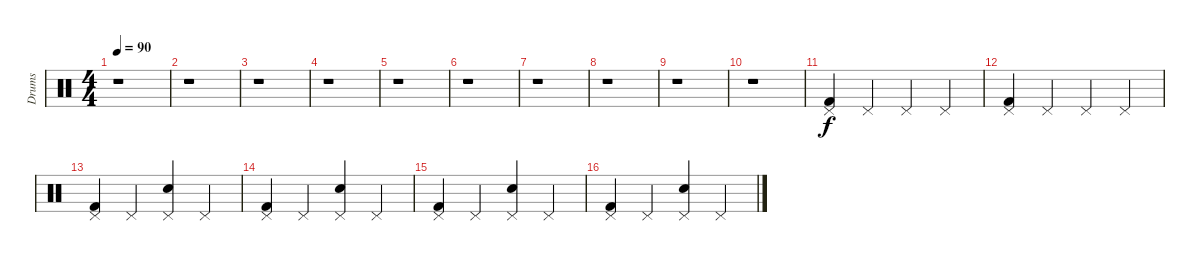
\track ("Drums" "Drums") {instrument percussion}
\staff {score}
\articulation defaults
\ts (4 4)
\tempo 90
\clef neutral
\ks c
r.1{dy f} |
r.1 |
r.1 |
r.1 |
r.1 |
r.1 |
r.1 |
r.1 |
r.1 |
r.1 |
("Pedal Hi-Hat (hit)" "Kick (hit) 2").4 "Pedal Hi-Hat (hit)".4 "Pedal Hi-Hat (hit)".4 "Pedal Hi-Hat (hit)".4 |
("Pedal Hi-Hat (hit)" "Kick (hit) 2").4 "Pedal Hi-Hat (hit)".4 "Pedal Hi-Hat (hit)".4 "Pedal Hi-Hat (hit)".4 |
("Pedal Hi-Hat (hit)" "Kick (hit) 2").4 "Pedal Hi-Hat (hit)".4 ("Pedal Hi-Hat (hit)" "Snare (hit) 2").4 "Pedal Hi-Hat (hit)".4 |
("Pedal Hi-Hat (hit)" "Kick (hit) 2").4 "Pedal Hi-Hat (hit)".4 ("Pedal Hi-Hat (hit)" "Snare (hit) 2").4 "Pedal Hi-Hat (hit)".4 |
("Pedal Hi-Hat (hit)" "Kick (hit) 2").4 "Pedal Hi-Hat (hit)".4 ("Pedal Hi-Hat (hit)" "Snare (hit) 2").4 "Pedal Hi-Hat (hit)".4 |
("Pedal Hi-Hat (hit)" "Kick (hit) 2").4 "Pedal Hi-Hat (hit)".4 ("Pedal Hi-Hat (hit)" "Snare (hit) 2").4 "Pedal Hi-Hat (hit)".4
